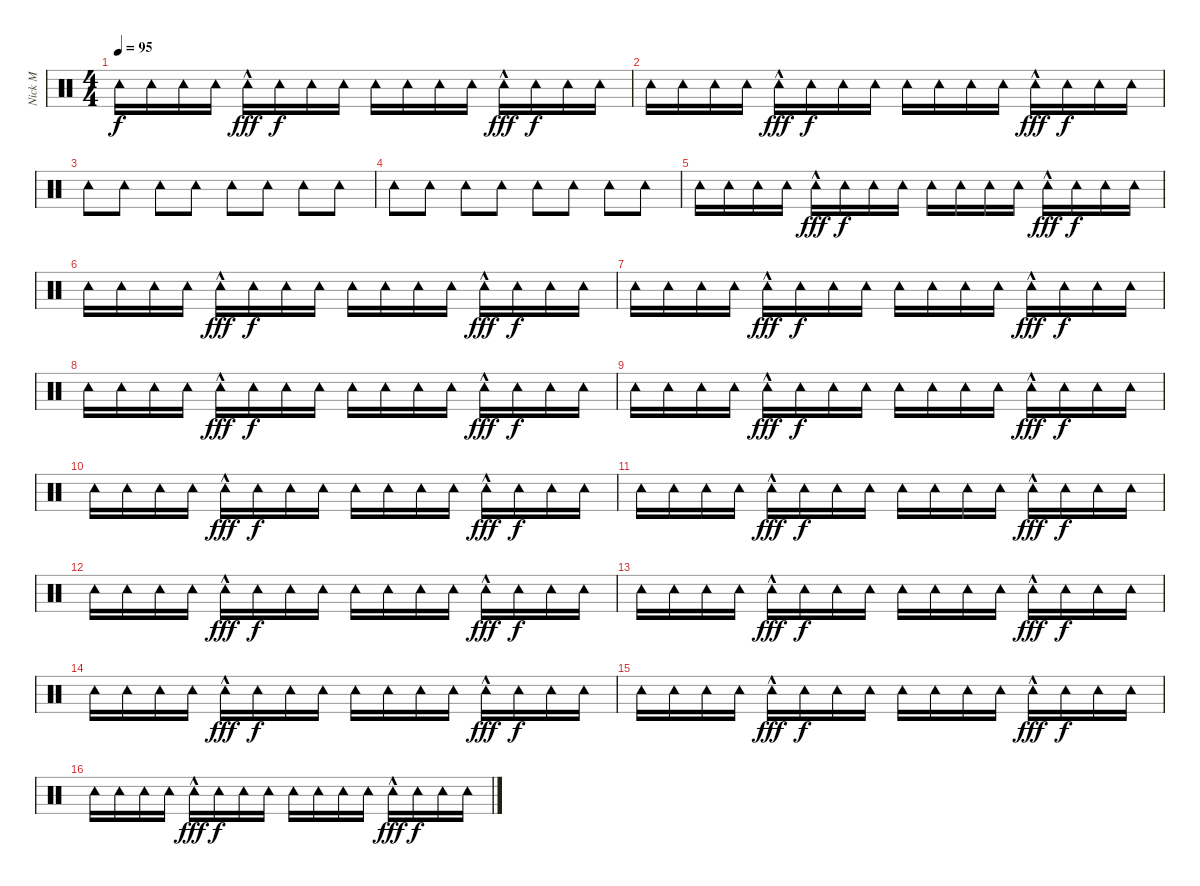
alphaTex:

\track ("Nick M" "Nick M") {instrument percussion}
\staff {score}
\articulation defaults
\ts (4 4)
\tempo 95
\clef neutral
\ks c "Tambourine (hit)".16{dy f} "Tambourine (hit)".16 "Tambourine (hit)".16 "Tambourine (hit)".16 "Tambourine (hit)"{hac}.16{dy fff} "Tambourine (hit)".16{dy f} "Tambourine (hit)".16 "Tambourine (hit)".16 "Tambourine (hit)".16 "Tambourine (hit)".16 "Tambourine (hit)".16 "Tambourine (hit)".16 "Tambourine (hit)"{hac}.16{dy fff} "Tambourine (hit)".16{dy f} "Tambourine (hit)".16 "Tambourine (hit)".16
|
"Tambourine (hit)".16 "Tambourine (hit)".16 "Tambourine (hit)".16 "Tambourine (hit)".16 "Tambourine (hit)"{hac}.16{dy fff} "Tambourine (hit)".16{dy f} "Tambourine (hit)".16 "Tambourine (hit)".16 "Tambourine (hit)".16 "Tambourine (hit)".16 "Tambourine (hit)".16 "Tambourine (hit)".16 "Tambourine (hit)"{hac}.16{dy fff} "Tambourine (hit)".16{dy f} "Tambourine (hit)".16 "Tambourine (hit)".16 |
"Tambourine (hit)".8 "Tambourine (hit)".8 "Tambourine (hit)".8 "Tambourine (hit)".8 "Tambourine (hit)".8 "Tambourine (hit)".8 "Tambourine (hit)".8 "Tambourine (hit)".8 |
"Tambourine (hit)".8 "Tambourine (hit)".8 "Tambourine (hit)".8 "Tambourine (hit)".8 "Tambourine (hit)".8 "Tambourine (hit)".8 "Tambourine (hit)".8 "Tambourine (hit)".8 |
"Tambourine (hit)".16 "Tambourine (hit)".16 "Tambourine (hit)".16 "Tambourine (hit)".16 "Tambourine (hit)"{hac}.16{dy fff} "Tambourine (hit)".16{dy f} "Tambourine (hit)".16 "Tambourine (hit)".16 "Tambourine (hit)".16 "Tambourine (hit)".16 "Tambourine (hit)".16 "Tambourine (hit)".16 "Tambourine (hit)"{hac}.16{dy fff} "Tambourine (hit)".16{dy f} "Tambourine (hit)".16 "Tambourine (hit)".16 |
"Tambourine (hit)".16 "Tambourine (hit)".16 "Tambourine (hit)".16 "Tambourine (hit)".16 "Tambourine (hit)"{hac}.16{dy fff} "Tambourine (hit)".16{dy f} "Tambourine (hit)".16 "Tambourine (hit)".16 "Tambourine (hit)".16 "Tambourine (hit)".16 "Tambourine (hit)".16 "Tambourine (hit)".16 "Tambourine (hit)"{hac}.16{dy fff} "Tambourine (hit)".16{dy f} "Tambourine (hit)".16 "Tambourine (hit)".16 |
"Tambourine (hit)".16 "Tambourine (hit)".16 "Tambourine (hit)".16 "Tambourine (hit)".16 "Tambourine (hit)"{hac}.16{dy fff} "Tambourine (hit)".16{dy f} "Tambourine (hit)".16 "Tambourine (hit)".16 "Tambourine (hit)".16 "Tambourine (hit)".16 "Tambourine (hit)".16 "Tambourine (hit)".16 "Tambourine (hit)"{hac}.16{dy fff} "Tambourine (hit)".16{dy f} "Tambourine (hit)".16 "Tambourine (hit)".16 |
"Tambourine (hit)".16 "Tambourine (hit)".16 "Tambourine (hit)".16 "Tambourine (hit)".16 "Tambourine (hit)"{hac}.16{dy fff} "Tambourine (hit)".16{dy f} "Tambourine (hit)".16 "Tambourine (hit)".16 "Tambourine (hit)".16 "Tambourine (hit)".16 "Tambourine (hit)".16 "Tambourine (hit)".16 "Tambourine (hit)"{hac}.16{dy fff} "Tambourine (hit)".16{dy f} "Tambourine (hit)".16 "Tambourine (hit)".16 |
"Tambourine (hit)".16 "Tambourine (hit)".16 "Tambourine (hit)".16 "Tambourine (hit)".16 "Tambourine (hit)"{hac}.16{dy fff} "Tambourine (hit)".16{dy f} "Tambourine (hit)".16 "Tambourine (hit)".16 "Tambourine (hit)".16 "Tambourine (hit)".16 "Tambourine (hit)".16 "Tambourine (hit)".16 "Tambourine (hit)"{hac}.16{dy fff} "Tambourine (hit)".16{dy f} "Tambourine (hit)".16 "Tambourine (hit)".16 |
"Tambourine (hit)".16 "Tambourine (hit)".16 "Tambourine (hit)".16 "Tambourine (hit)".16 "Tambourine (hit)"{hac}.16{dy fff} "Tambourine (hit)".16{dy f} "Tambourine (hit)".16 "Tambourine (hit)".16 "Tambourine (hit)".16 "Tambourine (hit)".16 "Tambourine (hit)".16 "Tambourine (hit)".16 "Tambourine (hit)"{hac}.16{dy fff} "Tambourine (hit)".16{dy f} "Tambourine (hit)".16 "Tambourine (hit)".16 |
"Tambourine (hit)".16 "Tambourine (hit)".16 "Tambourine (hit)".16 "Tambourine (hit)".16 "Tambourine (hit)"{hac}.16{dy fff} "Tambourine (hit)".16{dy f} "Tambourine (hit)".16 "Tambourine (hit)".16 "Tambourine (hit)".16 "Tambourine (hit)".16 "Tambourine (hit)".16 "Tambourine (hit)".16 "Tambourine (hit)"{hac}.16{dy fff} "Tambourine (hit)".16{dy f} "Tambourine (hit)".16 "Tambourine (hit)".16 |
"Tambourine (hit)".16 "Tambourine (hit)".16 "Tambourine (hit)".16 "Tambourine (hit)".16 "Tambourine (hit)"{hac}.16{dy fff} "Tambourine (hit)".16{dy f} "Tambourine (hit)".16 "Tambourine (hit)".16 "Tambourine (hit)".16 "Tambourine (hit)".16 "Tambourine (hit)".16 "Tambourine (hit)".16 "Tambourine (hit)"{hac}.16{dy fff} "Tambourine (hit)".16{dy f} "Tambourine (hit)".16 "Tambourine (hit)".16 |
"Tambourine (hit)".16 "Tambourine (hit)".16 "Tambourine (hit)".16 "Tambourine (hit)".16 "Tambourine (hit)"{hac}.16{dy fff} "Tambourine (hit)".16{dy f} "Tambourine (hit)".16 "Tambourine (hit)".16 "Tambourine (hit)".16 "Tambourine (hit)".16 "Tambourine (hit)".16 "Tambourine (hit)".16 "Tambourine (hit)"{hac}.16{dy fff} "Tambourine (hit)".16{dy f} "Tambourine (hit)".16 "Tambourine (hit)".16 |
"Tambourine (hit)".16 "Tambourine (hit)".16 "Tambourine (hit)".16 "Tambourine (hit)".16 "Tambourine (hit)"{hac}.16{dy fff} "Tambourine (hit)".16{dy f} "Tambourine (hit)".16 "Tambourine (hit)".16 "Tambourine (hit)".16 "Tambourine (hit)".16 "Tambourine (hit)".16 "Tambourine (hit)".16 "Tambourine (hit)"{hac}.16{dy fff} "Tambourine (hit)".16{dy f} "Tambourine (hit)".16 "Tambourine (hit)".16 |
"Tambourine (hit)".16 "Tambourine (hit)".16 "Tambourine (hit)".16 "Tambourine (hit)".16 "Tambourine (hit)"{hac}.16{dy fff} "Tambourine (hit)".16{dy f} "Tambourine (hit)".16 "Tambourine (hit)".16 "Tambourine (hit)".16 "Tambourine (hit)".16 "Tambourine (hit)".16 "Tambourine (hit)".16 "Tambourine (hit)"{hac}.16{dy fff} "Tambourine (hit)".16{dy f} "Tambourine (hit)".16 "Tambourine (hit)".16 |
"Tambourine (hit)".16 "Tambourine (hit)".16 "Tambourine (hit)".16 "Tambourine (hit)".16 "Tambourine (hit)"{hac}.16{dy fff} "Tambourine (hit)".16{dy f} "Tambourine (hit)".16 "Tambourine (hit)".16 "Tambourine (hit)".16 "Tambourine (hit)".16 "Tambourine (hit)".16 "Tambourine (hit)".16 "Tambourine (hit)"{hac}.16{dy fff} "Tambourine (hit)".16{dy f} "Tambourine (hit)".16 "Tambourine (hit)".16
